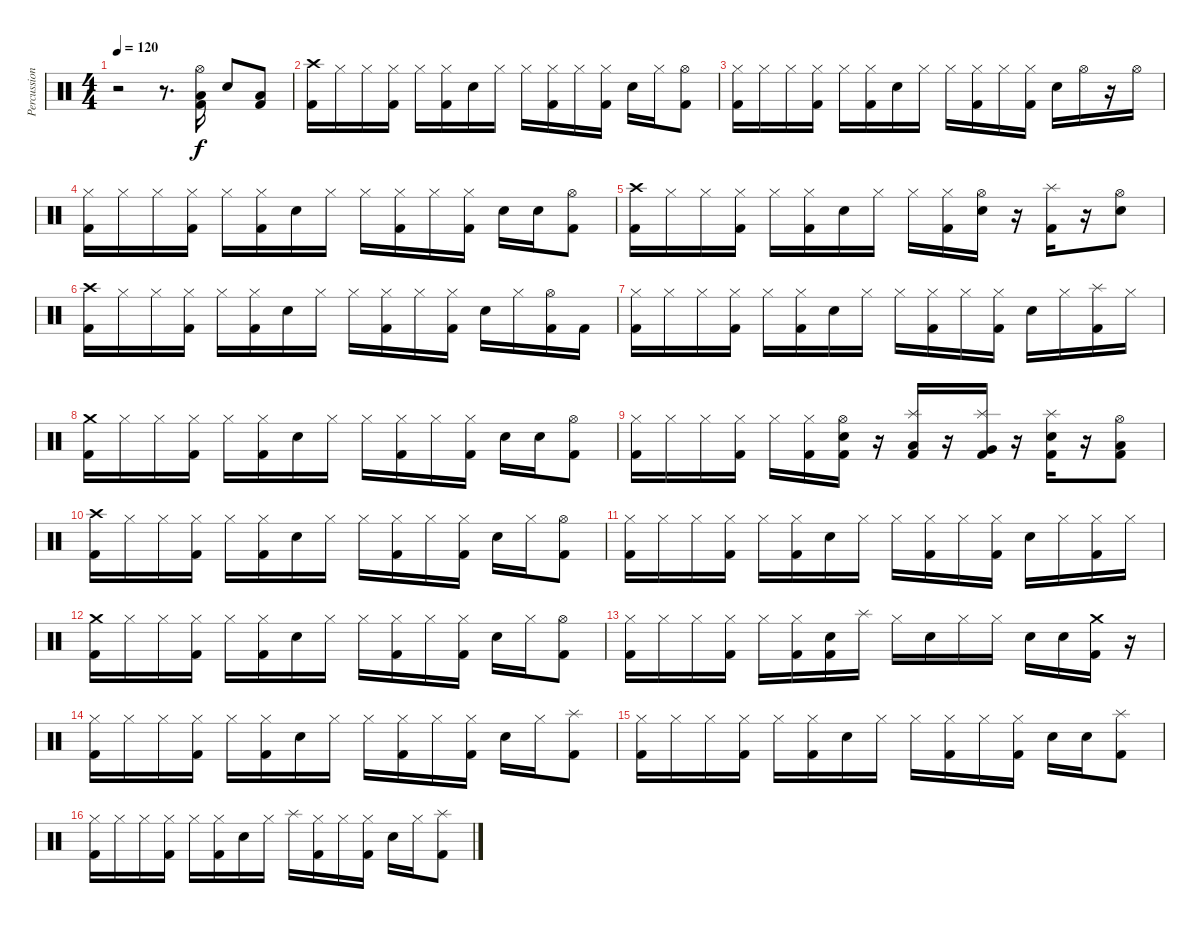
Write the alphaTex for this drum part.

\track ("Percussion" "Percussion") {instrument percussion}
\staff {score}
\articulation defaults
\ts (4 4)
\tempo 120
\clef neutral
\ks c
r.2{dy f} r.8{d} ("Hi-Hat (open)" "Low Floor Tom (hit)" "Kick (hit) 2").16 "Electric Snare (hit)".8 ("Low Floor Tom (hit)" "Kick (hit) 2").8 |
("Crash high (hit)" "Kick (hit) 2").16 "Hi-Hat (closed)".16 "Hi-Hat (closed)".16 ("Hi-Hat (closed)" "Kick (hit) 2").16 "Hi-Hat (closed)".16 ("Hi-Hat (closed)" "Kick (hit) 2").16 "Electric Snare (hit)".16 "Hi-Hat (closed)".16 "Hi-Hat (closed)".16 ("Hi-Hat (closed)" "Kick (hit) 2").16 "Hi-Hat (closed)".16 ("Hi-Hat (closed)" "Kick (hit) 2").16 "Electric Snare (hit)".16 "Hi-Hat (closed)".16 ("Hi-Hat (open)" "Kick (hit) 2").8 |
("Hi-Hat (closed)" "Kick (hit) 2").16 "Hi-Hat (closed)".16 "Hi-Hat (closed)".16 ("Hi-Hat (closed)" "Kick (hit) 2").16 "Hi-Hat (closed)".16 ("Hi-Hat (closed)" "Kick (hit) 2").16 "Electric Snare (hit)".16 "Hi-Hat (closed)".16 "Hi-Hat (closed)".16 ("Hi-Hat (closed)" "Kick (hit) 2").16 "Hi-Hat (closed)".16 ("Hi-Hat (closed)" "Kick (hit) 2").16 "Electric Snare (hit)".16 "Hi-Hat (open)".16 r.16 "Hi-Hat (open)".16 |
("Hi-Hat (closed)" "Kick (hit) 2").16 "Hi-Hat (closed)".16 "Hi-Hat (closed)".16 ("Hi-Hat (closed)" "Kick (hit) 2").16 "Hi-Hat (closed)".16 ("Hi-Hat (closed)" "Kick (hit) 2").16 "Electric Snare (hit)".16 "Hi-Hat (closed)".16 "Hi-Hat (closed)".16 ("Hi-Hat (closed)" "Kick (hit) 2").16 "Hi-Hat (closed)".16 ("Hi-Hat (closed)" "Kick (hit) 2").16 "Electric Snare (hit)".16 "Electric Snare (hit)".16 ("Hi-Hat (open)" "Kick (hit) 2").8 |
("Crash high (hit)" "Kick (hit) 2").16 "Hi-Hat (closed)".16 "Hi-Hat (closed)".16 ("Hi-Hat (closed)" "Kick (hit) 2").16 "Hi-Hat (closed)".16 ("Hi-Hat (closed)" "Kick (hit) 2").16 "Electric Snare (hit)".16 "Hi-Hat (closed)".16 "Hi-Hat (closed)".16 ("Hi-Hat (closed)" "Kick (hit) 2").16 ("Hi-Hat (open)" "Electric Snare (hit)").16 r.16 ("Splash (hit)" "Kick (hit) 2").16 r.16 ("Hi-Hat (open)" "Electric Snare (hit)").8 |
("Crash high (hit)" "Kick (hit) 2").16 "Hi-Hat (closed)".16 "Hi-Hat (closed)".16 ("Hi-Hat (closed)" "Kick (hit) 2").16 "Hi-Hat (closed)".16 ("Hi-Hat (closed)" "Kick (hit) 2").16 "Electric Snare (hit)".16 "Hi-Hat (closed)".16 "Hi-Hat (closed)".16 ("Hi-Hat (closed)" "Kick (hit) 2").16 "Hi-Hat (closed)".16 ("Hi-Hat (closed)" "Kick (hit) 2").16 "Electric Snare (hit)".16 "Hi-Hat (closed)".16 ("Hi-Hat (open)" "Kick (hit) 2").16 "Kick (hit) 2".16 |
("Hi-Hat (closed)" "Kick (hit) 2").16 "Hi-Hat (closed)".16 "Hi-Hat (closed)".16 ("Hi-Hat (closed)" "Kick (hit) 2").16 "Hi-Hat (closed)".16 ("Hi-Hat (closed)" "Kick (hit) 2").16 "Electric Snare (hit)".16 "Hi-Hat (closed)".16 "Hi-Hat (closed)".16 ("Hi-Hat (closed)" "Kick (hit) 2").16 "Hi-Hat (closed)".16 ("Hi-Hat (closed)" "Kick (hit) 2").16 "Electric Snare (hit)".16 "Hi-Hat (closed)".16 ("Splash (hit)" "Kick (hit) 2").16 "Hi-Hat (closed)".16 |
("Crash medium (hit)" "Kick (hit) 2").16 "Hi-Hat (closed)".16 "Hi-Hat (closed)".16 ("Hi-Hat (closed)" "Kick (hit) 2").16 "Hi-Hat (closed)".16 ("Hi-Hat (closed)" "Kick (hit) 2").16 "Electric Snare (hit)".16 "Hi-Hat (closed)".16 "Hi-Hat (closed)".16 ("Hi-Hat (closed)" "Kick (hit) 2").16 "Hi-Hat (closed)".16 ("Hi-Hat (closed)" "Kick (hit) 2").16 "Electric Snare (hit)".16 "Electric Snare (hit)".16 ("Hi-Hat (open)" "Kick (hit) 2").8 |
("Hi-Hat (closed)" "Kick (hit) 2").16 "Hi-Hat (closed)".16 "Hi-Hat (closed)".16 ("Hi-Hat (closed)" "Kick (hit) 2").16 "Hi-Hat (closed)".16 ("Hi-Hat (closed)" "Kick (hit) 2").16 ("Hi-Hat (open)" "Electric Snare (hit)" "Kick (hit) 2").16 r.16 ("Splash (hit)" "Low Tom (hit)" "Kick (hit) 2").16 r.16 ("Splash (hit)" "Very Low Tom (hit)" "Kick (hit) 2").16 r.16 ("Splash (hit)" "Electric Snare (hit)" "Kick (hit) 2").16 r.16 ("Hi-Hat (open)" "Low Tom (hit)" "Kick (hit) 2").8 |
("Crash high (hit)" "Kick (hit) 2").16 "Hi-Hat (closed)".16 "Hi-Hat (closed)".16 ("Hi-Hat (closed)" "Kick (hit) 2").16 "Hi-Hat (closed)".16 ("Hi-Hat (closed)" "Kick (hit) 2").16 "Electric Snare (hit)".16 "Hi-Hat (closed)".16 "Hi-Hat (closed)".16 ("Hi-Hat (closed)" "Kick (hit) 2").16 "Hi-Hat (closed)".16 ("Hi-Hat (closed)" "Kick (hit) 2").16 "Electric Snare (hit)".16 "Hi-Hat (closed)".16 ("Hi-Hat (open)" "Kick (hit) 2").8 |
("Hi-Hat (closed)" "Kick (hit) 2").16 "Hi-Hat (closed)".16 "Hi-Hat (closed)".16 ("Hi-Hat (closed)" "Kick (hit) 2").16 "Hi-Hat (closed)".16 ("Hi-Hat (closed)" "Kick (hit) 2").16 "Electric Snare (hit)".16 "Hi-Hat (closed)".16 "Hi-Hat (closed)".16 ("Hi-Hat (closed)" "Kick (hit) 2").16 "Hi-Hat (closed)".16 ("Hi-Hat (closed)" "Kick (hit) 2").16 "Electric Snare (hit)".16 "Hi-Hat (closed)".16 ("Hi-Hat (closed)" "Kick (hit) 2").16 "Hi-Hat (closed)".16 |
("Crash medium (hit)" "Kick (hit) 2").16 "Hi-Hat (closed)".16 "Hi-Hat (closed)".16 ("Hi-Hat (closed)" "Kick (hit) 2").16 "Hi-Hat (closed)".16 ("Hi-Hat (closed)" "Kick (hit) 2").16 "Electric Snare (hit)".16 "Hi-Hat (closed)".16 "Hi-Hat (closed)".16 ("Hi-Hat (closed)" "Kick (hit) 2").16 "Hi-Hat (closed)".16 ("Hi-Hat (closed)" "Kick (hit) 2").16 "Electric Snare (hit)".16 "Hi-Hat (closed)".16 ("Hi-Hat (open)" "Kick (hit) 2").8 |
("Hi-Hat (closed)" "Kick (hit) 2").16 "Hi-Hat (closed)".16 "Hi-Hat (closed)".16 ("Hi-Hat (closed)" "Kick (hit) 2").16 "Hi-Hat (closed)".16 ("Hi-Hat (closed)" "Kick (hit) 2").16 ("Electric Snare (hit)" "Kick (hit) 2").16 "Splash (hit)".16 "Hi-Hat (closed)".16 "Electric Snare (hit)".16 "Hi-Hat (closed)".16 "Hi-Hat (closed)".16 "Electric Snare (hit)".16 "Electric Snare (hit)".16 ("Crash medium (hit)" "Kick (hit) 2").16 r.16 |
("Hi-Hat (closed)" "Kick (hit) 2").16 "Hi-Hat (closed)".16 "Hi-Hat (closed)".16 ("Hi-Hat (closed)" "Kick (hit) 2").16 "Hi-Hat (closed)".16 ("Hi-Hat (closed)" "Kick (hit) 2").16 "Electric Snare (hit)".16 "Hi-Hat (closed)".16 "Hi-Hat (closed)".16 ("Hi-Hat (closed)" "Kick (hit) 2").16 "Hi-Hat (closed)".16 ("Hi-Hat (closed)" "Kick (hit) 2").16 "Electric Snare (hit)".16 "Hi-Hat (closed)".16 ("Splash (hit)" "Kick (hit) 2").8 |
("Hi-Hat (closed)" "Kick (hit) 2").16 "Hi-Hat (closed)".16 "Hi-Hat (closed)".16 ("Hi-Hat (closed)" "Kick (hit) 2").16 "Hi-Hat (closed)".16 ("Hi-Hat (closed)" "Kick (hit) 2").16 "Electric Snare (hit)".16 "Hi-Hat (closed)".16 "Hi-Hat (closed)".16 ("Hi-Hat (closed)" "Kick (hit) 2").16 "Hi-Hat (closed)".16 ("Hi-Hat (closed)" "Kick (hit) 2").16 "Electric Snare (hit)".16 "Electric Snare (hit)".16 ("Splash (hit)" "Kick (hit) 2").8 |
("Hi-Hat (closed)" "Kick (hit) 2").16 "Hi-Hat (closed)".16 "Hi-Hat (closed)".16 ("Hi-Hat (closed)" "Kick (hit) 2").16 "Hi-Hat (closed)".16 ("Hi-Hat (closed)" "Kick (hit) 2").16 "Electric Snare (hit)".16 "Hi-Hat (closed)".16 "Splash (hit)".16 ("Hi-Hat (closed)" "Kick (hit) 2").16 "Hi-Hat (closed)".16 ("Hi-Hat (closed)" "Kick (hit) 2").16 "Electric Snare (hit)".16 "Hi-Hat (closed)".16 ("Splash (hit)" "Kick (hit) 2").8
